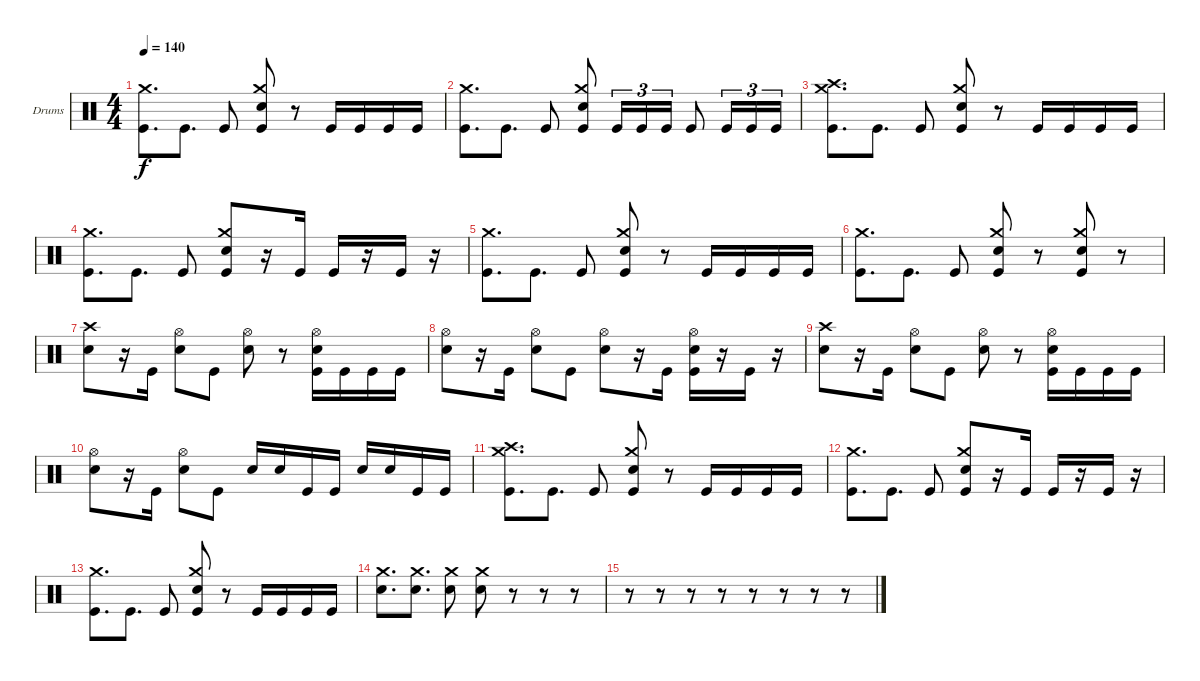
\bracketExtendMode groupsimilarinstruments
\firstSystemTrackNameOrientation horizontal
\otherSystemsTrackNameOrientation horizontal
\track ("Drumkit" "Drums") {instrument percussion}
\staff {score}
\articulation defaults
\ts (4 4)
\tempo 140
\clef neutral
\ks c
("Kick (hit)" "Crash medium (hit)").8{d dy f} "Kick (hit)".8{d} "Kick (hit)".8 ("Kick (hit)" "Crash medium (hit)" "Snare (hit) 2").8 r.8 "Kick (hit)".16 "Kick (hit)".16 "Kick (hit)".16 "Kick (hit)".16 |
("Kick (hit)" "Crash medium (hit)").8{d} "Kick (hit)".8{d} "Kick (hit)".8 ("Kick (hit)" "Crash medium (hit)" "Snare (hit) 2").8 "Kick (hit)".16{tu (3 2)} "Kick (hit)".16{tu (3 2)} "Kick (hit)".16{tu (3 2)} "Kick (hit)".8 "Kick (hit)".16{tu (3 2)} "Kick (hit)".16{tu (3 2)} "Kick (hit)".16{tu (3 2)} |
("Kick (hit)" "Crash medium (hit)" "Crash high (hit)").8{d} "Kick (hit)".8{d} "Kick (hit)".8 ("Kick (hit)" "Crash medium (hit)" "Snare (hit) 2").8 r.8 "Kick (hit)".16 "Kick (hit)".16 "Kick (hit)".16 "Kick (hit)".16 |
("Kick (hit)" "Crash medium (hit)").8{d} "Kick (hit)".8{d} "Kick (hit)".8 ("Kick (hit)" "Crash medium (hit)" "Snare (hit) 2").8 r.16 "Kick (hit)".16 "Kick (hit)".16 r.16 "Kick (hit)".16 r.16 |
("Kick (hit)" "Crash medium (hit)").8{d} "Kick (hit)".8{d} "Kick (hit)".8 ("Kick (hit)" "Crash medium (hit)" "Snare (hit) 2").8 r.8 "Kick (hit)".16 "Kick (hit)".16 "Kick (hit)".16 "Kick (hit)".16 |
("Kick (hit)" "Crash medium (hit)").8{d} "Kick (hit)".8{d} "Kick (hit)".8 ("Kick (hit)" "Crash medium (hit)" "Snare (hit) 2").8 r.8 ("Snare (hit) 2" "Kick (hit)" "Crash medium (hit)").8 r.8 |
("Crash high (hit)" "Snare (hit) 2").8 r.16 "Kick (hit)".16 ("Snare (hit) 2" "Hi-Hat (open)").8 "Kick (hit)".8 ("Hi-Hat (open)" "Snare (hit) 2").8 r.8 ("Snare (hit) 2" "Hi-Hat (open)" "Kick (hit)").16 "Kick (hit)".16 "Kick (hit)".16 "Kick (hit)".16 |
("Snare (hit) 2" "Hi-Hat (open)").8 r.16 "Kick (hit)".16 ("Snare (hit) 2" "Hi-Hat (open)").8 "Kick (hit)".8 ("Hi-Hat (open)" "Snare (hit) 2").8 r.16 "Kick (hit)".16 ("Kick (hit)" "Snare (hit) 2" "Hi-Hat (open)").16 r.16 "Kick (hit)".16 r.16 |
("Snare (hit) 2" "Crash high (hit)").8 r.16 "Kick (hit)".16 ("Snare (hit) 2" "Hi-Hat (open)").8 "Kick (hit)".8 ("Hi-Hat (open)" "Snare (hit) 2").8 r.8 ("Snare (hit) 2" "Hi-Hat (open)" "Kick (hit)").16 "Kick (hit)".16 "Kick (hit)".16 "Kick (hit)".16 |
("Snare (hit) 2" "Hi-Hat (open)").8 r.16 "Kick (hit)".16 ("Snare (hit) 2" "Hi-Hat (open)").8 "Kick (hit)".8 "Snare (hit) 2".16 "Snare (hit) 2".16 "Kick (hit)".16 "Kick (hit)".16 "Snare (hit) 2".16 "Snare (hit) 2".16 "Kick (hit)".16 "Kick (hit)".16 |
("Kick (hit)" "Crash medium (hit)" "Crash high (hit)").8{d} "Kick (hit)".8{d} "Kick (hit)".8 ("Kick (hit)" "Crash medium (hit)" "Snare (hit) 2").8 r.8 "Kick (hit)".16 "Kick (hit)".16 "Kick (hit)".16 "Kick (hit)".16 |
("Kick (hit)" "Crash medium (hit)").8{d} "Kick (hit)".8{d} "Kick (hit)".8 ("Kick (hit)" "Crash medium (hit)" "Snare (hit) 2").8 r.16 "Kick (hit)".16 "Kick (hit)".16 r.16 "Kick (hit)".16 r.16 |
("Kick (hit)" "Crash medium (hit)").8{d} "Kick (hit)".8{d} "Kick (hit)".8 ("Kick (hit)" "Crash medium (hit)" "Snare (hit) 2").8 r.8 "Kick (hit)".16 "Kick (hit)".16 "Kick (hit)".16 "Kick (hit)".16 |
("Snare (hit) 2" "Crash medium (hit)").8{d} ("Snare (hit) 2" "Crash medium (hit)").8{d} ("Snare (hit) 2" "Crash medium (hit)").8 ("Snare (hit) 2" "Crash medium (hit)").8 r.8 r.8 r.8 |
r.8 r.8 r.8 r.8 r.8 r.8 r.8 r.8
